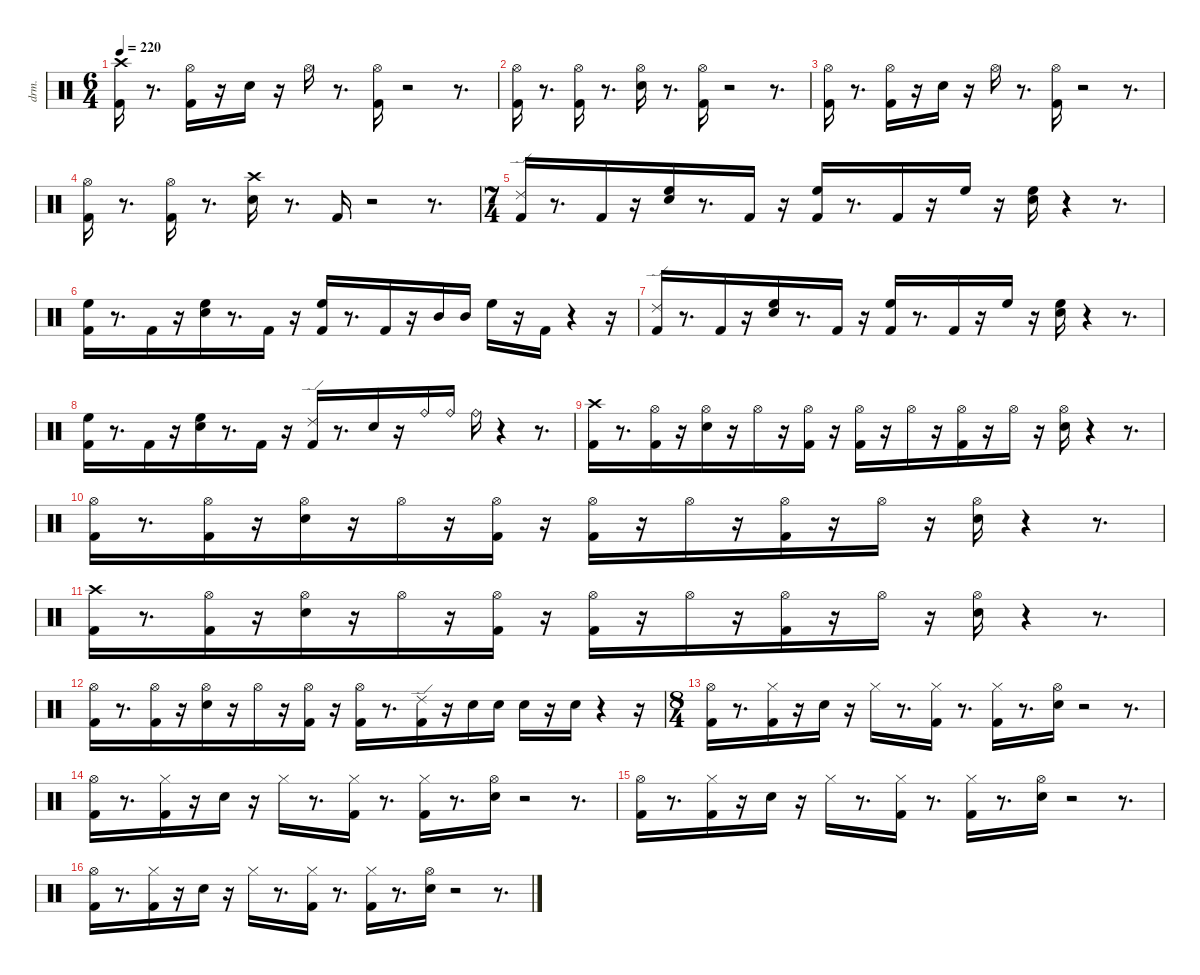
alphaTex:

\defaultSystemsLayout 4
\hideDynamics
\bracketExtendMode nobrackets
\otherSystemsTrackNameOrientation horizontal
\track ("EZdrummer 3" "drm.") {mute instrument percussion}
\staff {score}
\articulation defaults
\ts (6 4)
\tempo 220
\clef neutral
\ks c
("Kick (hit) 2" "Crash high (hit)"{acc #}).16{dy fff beam Down} r.8{d beam Down} ("Kick (hit) 2" "Hi-Hat (open)"{acc #}).16{dy ff beam Down} r.16{beam Down} "Snare (hit) 2".16{beam Down} r.16{beam Down} "Hi-Hat (open)"{acc #}.16{beam Down} r.8{d beam Down} ("Kick (hit) 2" "Hi-Hat (open)"{acc #}).16{beam Down} r.2{beam Down} r.8{d beam Down} |
("Kick (hit) 2" "Hi-Hat (open)"{acc #}).16{beam Down} r.8{d beam Down} ("Kick (hit) 2" "Hi-Hat (open)"{acc #}).16{beam Down} r.8{d beam Down} ("Snare (hit) 2" "Hi-Hat (open)"{acc #}).16{beam Down} r.8{d beam Down} ("Kick (hit) 2" "Hi-Hat (open)"{acc #}).16{dy mf beam Down} r.2{beam Down} r.8{d beam Down} |
("Kick (hit) 2" "Hi-Hat (open)"{acc #}).16{dy fff beam Down} r.8{d beam Down} ("Kick (hit) 2" "Hi-Hat (open)"{acc #}).16{dy ff beam Down} r.16{beam Down} "Snare (hit) 2".16{beam Down} r.16{beam Down} "Hi-Hat (open)"{acc #}.16{beam Down} r.8{d beam Down} ("Kick (hit) 2" "Hi-Hat (open)"{acc #}).16{beam Down} r.2{beam Down} r.8{d beam Down} |
("Kick (hit) 2" "Hi-Hat (open)"{acc #}).16{beam Down} r.8{d beam Down} ("Kick (hit) 2" "Hi-Hat (open)"{acc #}).16{beam Down} r.8{d beam Down} ("Snare (hit) 2" "Crash high (hit)"{acc #}).16{beam Down} r.8{d beam Down} "Kick (hit) 2".16{dy mf beam Up} r.2{beam Up} r.8{d beam Up} |
\ts (7 4)
\beaming (8 6 4 4)
("Kick (hit) 2" "Ride (edge) 2").16{dy ff beam Up} r.8{d beam Up} "Kick (hit) 2".16{dy f beam Up} r.16{beam Up} ("Snare (hit) 2" "High Floor Tom (hit)").16{dy ff beam Down} r.8{d beam Down} "Kick (hit) 2".16{dy f beam Up} r.16{beam Up} ("Kick (hit) 2" "High Floor Tom (hit)").16{dy ff beam Up} r.8{d beam Up} "Kick (hit) 2".16{dy f beam Up} r.16{beam Up} "High Floor Tom (hit)".16{dy p beam Down} r.16{beam Down} ("Snare (hit) 2" "High Floor Tom (hit)").16{dy ff beam Down} r.4{beam Down} r.8{d beam Down} |
("Kick (hit) 2" "High Floor Tom (hit)").16{beam Down} r.8{d beam Down} "Kick (hit) 2".16{dy f beam Up} r.16{beam Up} ("Snare (hit) 2" "High Floor Tom (hit)").16{dy ff beam Down} r.8{d beam Down} "Kick (hit) 2".16{dy f beam Up} r.16{beam Up} ("Kick (hit) 2" "High Floor Tom (hit)").16{dy ff beam Up} r.8{d beam Up} "Kick (hit) 2".16{dy f beam Up} r.16{beam Up} "Mid Tom (hit)".16{dy ff beam Up} "Mid Tom (hit)".16{dy mp beam Up} "High Floor Tom (hit)".16{dy ff beam Down} r.16{beam Down} "Kick (hit) 2".16{beam Up} r.4{beam Up} r.16{beam Up} |
("Kick (hit) 2" "Ride (edge) 2").16{beam Up} r.8{d beam Up} "Kick (hit) 2".16{dy f beam Up} r.16{beam Up} ("Snare (hit) 2" "High Floor Tom (hit)").16{dy ff beam Down} r.8{d beam Down} "Kick (hit) 2".16{dy f beam Up} r.16{beam Up} ("Kick (hit) 2" "High Floor Tom (hit)").16{dy ff beam Up} r.8{d beam Up} "Kick (hit) 2".16{dy f beam Up} r.16{beam Up} "High Floor Tom (hit)".16{dy mp beam Down} r.16{beam Down} ("Snare (hit) 2" "High Floor Tom (hit)").16{dy ff beam Down} r.4{beam Down} r.8{d beam Down} |
("Kick (hit) 2" "High Floor Tom (hit)").16{beam Down} r.8{d beam Down} "Kick (hit) 2".16{dy f beam Up} r.16{beam Up} ("Snare (hit) 2" "High Floor Tom (hit)").16{dy ff beam Down} r.8{d beam Down} "Kick (hit) 2".16{dy f beam Up} r.16{beam Up} ("Kick (hit) 2" "Ride (edge) 2").16{dy ff beam Up} r.8{d beam Up} "Snare (hit) 2".16{dy fff beam Down} r.16{beam Down} "Ride (bell)".16{dy mf beam Down} "Ride (bell)".16{dy mp beam Down} "Ride (bell)".16{dy ff beam Down} r.4{beam Down} r.8{d beam Down} |
("Kick (hit) 2" "Crash high (hit)"{acc #}).16{beam Down} r.8{d beam Down} ("Kick (hit) 2" "Hi-Hat (open)"{acc #}).16{dy f beam Down} r.16{beam Down} ("Snare (hit) 2" "Hi-Hat (open)"{acc #}).16{dy ff beam Down} r.16{beam Down} "Hi-Hat (open)"{acc #}.16{beam Down} r.16{beam Down} ("Kick (hit) 2" "Hi-Hat (open)"{acc #}).16{dy f beam Down} r.16{beam Down} ("Kick (hit) 2" "Hi-Hat (open)"{acc #}).16{dy ff beam Down} r.16{beam Down} "Hi-Hat (open)"{acc #}.16{dy pp beam Down} r.16{beam Down} ("Kick (hit) 2" "Hi-Hat (open)"{acc #}).16{dy f beam Down} r.16{beam Down} "Hi-Hat (open)"{acc #}.16{dy pp beam Down} r.16{beam Down} ("Snare (hit) 2" "Hi-Hat (open)"{acc #}).16{dy ff beam Down} r.4{beam Down} r.8{d beam Down} |
("Kick (hit) 2" "Hi-Hat (open)"{acc #}).16{beam Down} r.8{d beam Down} ("Kick (hit) 2" "Hi-Hat (open)"{acc #}).16{dy f beam Down} r.16{beam Down} ("Snare (hit) 2" "Hi-Hat (open)"{acc #}).16{dy ff beam Down} r.16{beam Down} "Hi-Hat (open)"{acc #}.16{beam Down} r.16{beam Down} ("Kick (hit) 2" "Hi-Hat (open)"{acc #}).16{dy f beam Down} r.16{beam Down} ("Kick (hit) 2" "Hi-Hat (open)"{acc #}).16{dy ff beam Down} r.16{beam Down} "Hi-Hat (open)"{acc #}.16{dy pp beam Down} r.16{beam Down} ("Kick (hit) 2" "Hi-Hat (open)"{acc #}).16{dy f beam Down} r.16{beam Down} "Hi-Hat (open)"{acc #}.16{dy pp beam Down} r.16{beam Down} ("Snare (hit) 2" "Hi-Hat (open)"{acc #}).16{dy ff beam Down} r.4{beam Down} r.8{d beam Down} |
("Kick (hit) 2" "Crash high (hit)"{acc #}).16{beam Down} r.8{d beam Down} ("Kick (hit) 2" "Hi-Hat (open)"{acc #}).16{dy f beam Down} r.16{beam Down} ("Snare (hit) 2" "Hi-Hat (open)"{acc #}).16{dy ff beam Down} r.16{beam Down} "Hi-Hat (open)"{acc #}.16{beam Down} r.16{beam Down} ("Kick (hit) 2" "Hi-Hat (open)"{acc #}).16{dy f beam Down} r.16{beam Down} ("Kick (hit) 2" "Hi-Hat (open)"{acc #}).16{dy ff beam Down} r.16{beam Down} "Hi-Hat (open)"{acc #}.16{dy pp beam Down} r.16{beam Down} ("Kick (hit) 2" "Hi-Hat (open)"{acc #}).16{dy f beam Down} r.16{beam Down} "Hi-Hat (open)"{acc #}.16{dy pp beam Down} r.16{beam Down} ("Snare (hit) 2" "Hi-Hat (open)"{acc #}).16{dy ff beam Down} r.4{beam Down} r.8{d beam Down} |
("Kick (hit) 2" "Hi-Hat (open)"{acc #}).16{beam Down} r.8{d beam Down} ("Kick (hit) 2" "Hi-Hat (open)"{acc #}).16{dy f beam Down} r.16{beam Down} ("Snare (hit) 2" "Hi-Hat (open)"{acc #}).16{dy ff beam Down} r.16{beam Down} "Hi-Hat (open)"{acc #}.16{beam Down} r.16{beam Down} ("Kick (hit) 2" "Hi-Hat (open)"{acc #}).16{dy f beam Down} r.16{beam Down} ("Kick (hit) 2" "Hi-Hat (open)"{acc #}).16{dy ff beam Down} r.8{d beam Down} ("Kick (hit) 2" "Ride (edge) 2").16{dy fff beam Up} r.16{beam Up} "Snare (hit) 2".16{dy mp beam Down} "Snare (hit) 2".16{dy pp beam Down} "Snare (hit) 2".16{dy f beam Down} r.16{beam Down} "Snare (hit) 2".16{dy fff beam Down} r.4{beam Down} r.16{beam Down} |
\ts (8 4)
\beaming (8 4 4 4 4)
("Kick (hit) 2" "Hi-Hat (open)"{acc #}).16{beam Down} r.8{d beam Down} ("Kick (hit) 2" "Hi-Hat (closed)"{acc #}).16{dy f beam Down} r.16{beam Down} "Snare (hit) 2".16{dy ff beam Down} r.16{beam Down} "Hi-Hat (closed)"{acc #}.16{beam Down} r.8{d beam Down} ("Kick (hit) 2" "Hi-Hat (closed)"{acc #}).16{beam Down} r.8{d beam Down} ("Kick (hit) 2" "Hi-Hat (closed)"{acc #}).16{dy f beam Down} r.8{d beam Down} ("Snare (hit) 2" "Hi-Hat (open)"{acc #}).16{dy ff beam Down} r.2{beam Down} r.8{d beam Down} |
("Kick (hit) 2" "Hi-Hat (open)"{acc #}).16{dy fff beam Down} r.8{d beam Down} ("Kick (hit) 2" "Hi-Hat (closed)"{acc #}).16{dy f beam Down} r.16{beam Down} "Snare (hit) 2".16{dy ff beam Down} r.16{beam Down} "Hi-Hat (closed)"{acc #}.16{beam Down} r.8{d beam Down} ("Kick (hit) 2" "Hi-Hat (closed)"{acc #}).16{beam Down} r.8{d beam Down} ("Kick (hit) 2" "Hi-Hat (closed)"{acc #}).16{dy f beam Down} r.8{d beam Down} ("Snare (hit) 2" "Hi-Hat (open)"{acc #}).16{dy ff beam Down} r.2{beam Down} r.8{d beam Down} |
("Kick (hit) 2" "Hi-Hat (open)"{acc #}).16{dy fff beam Down} r.8{d beam Down} ("Kick (hit) 2" "Hi-Hat (closed)"{acc #}).16{dy f beam Down} r.16{beam Down} "Snare (hit) 2".16{dy ff beam Down} r.16{beam Down} "Hi-Hat (closed)"{acc #}.16{beam Down} r.8{d beam Down} ("Kick (hit) 2" "Hi-Hat (closed)"{acc #}).16{beam Down} r.8{d beam Down} ("Kick (hit) 2" "Hi-Hat (closed)"{acc #}).16{dy f beam Down} r.8{d beam Down} ("Snare (hit) 2" "Hi-Hat (open)"{acc #}).16{dy ff beam Down} r.2{beam Down} r.8{d beam Down} |
("Kick (hit) 2" "Hi-Hat (open)"{acc #}).16{dy fff beam Down} r.8{d beam Down} ("Kick (hit) 2" "Hi-Hat (closed)"{acc #}).16{dy f beam Down} r.16{beam Down} "Snare (hit) 2".16{dy ff beam Down} r.16{beam Down} "Hi-Hat (closed)"{acc #}.16{beam Down} r.8{d beam Down} ("Kick (hit) 2" "Hi-Hat (closed)"{acc #}).16{beam Down} r.8{d beam Down} ("Kick (hit) 2" "Hi-Hat (closed)"{acc #}).16{dy f beam Down} r.8{d beam Down} ("Snare (hit) 2" "Hi-Hat (open)"{acc #}).16{dy ff beam Down} r.2{beam Down} r.8{d beam Down}
